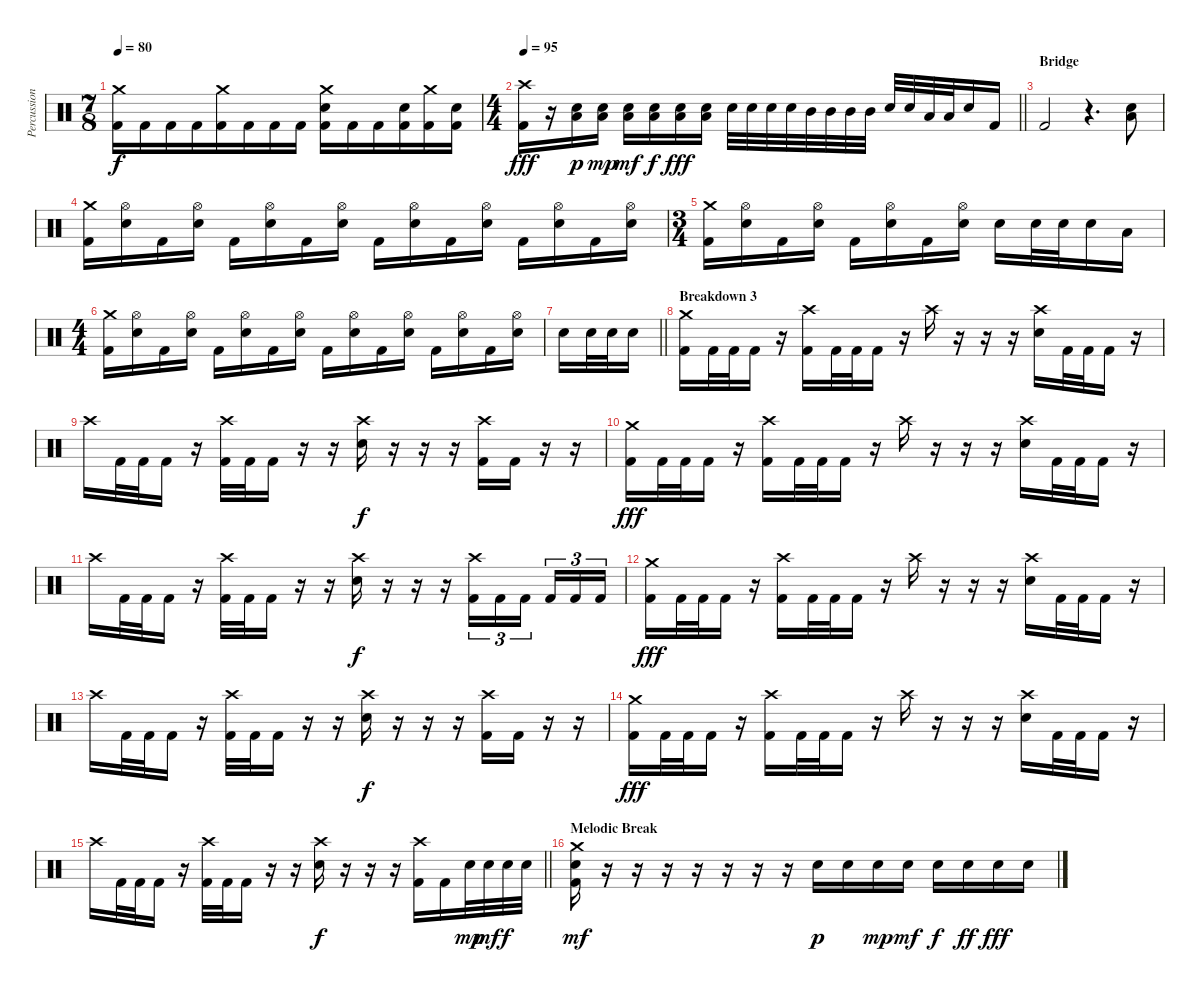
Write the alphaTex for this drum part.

\track ("Percussion" "Percussion") {instrument percussion}
\staff {score}
\articulation defaults
\ts (7 8)
\tempo 80
\clef neutral
\ks c
("Crash medium (hit)" "Kick (hit) 2").16{dy f} "Kick (hit) 2".16 "Kick (hit) 2".16 "Kick (hit) 2".16 ("Crash medium (hit)" "Kick (hit) 2").16 "Kick (hit) 2".16 "Kick (hit) 2".16 "Kick (hit) 2".16 ("Crash medium (hit)" "Electric Snare (hit)" "Kick (hit) 2").16 "Kick (hit) 2".16 "Kick (hit) 2".16 ("Electric Snare (hit)" "Kick (hit) 2").16 ("Crash medium (hit)" "Kick (hit) 2").16 ("Electric Snare (hit)" "Kick (hit) 2").16 |
\ts (4 4)
\tempo 95
\barLineRight lightlight
("Crash high (hit)" "Kick (hit) 2").16{dy fff} r.16 ("Low Floor Tom (hit)" "Electric Snare (hit)").16{dy p} ("Low Floor Tom (hit)" "Electric Snare (hit)").16{dy mp} ("Low Floor Tom (hit)" "Electric Snare (hit)").16{dy mf} ("Low Floor Tom (hit)" "Electric Snare (hit)").16{dy f} ("Low Floor Tom (hit)" "Electric Snare (hit)").16{dy fff} ("Low Floor Tom (hit)" "Electric Snare (hit)").16 "Electric Snare (hit)".32 "Electric Snare (hit)".32 "Electric Snare (hit)".32 "Electric Snare (hit)".32 "Mid Tom (hit)".32 "Mid Tom (hit)".32 "Mid Tom (hit)".32 "Mid Tom (hit)".32 "Electric Snare (hit)".32 "Electric Snare (hit)".32 "Low Floor Tom (hit)".32 "Low Floor Tom (hit)".32 "Electric Snare (hit)".16 "Kick (hit) 2".16 |
\section ("" "Bridge")
"Kick (hit) 2".2 r.4{d} ("Low Floor Tom (hit)" "Electric Snare (hit)").8 |
("Crash medium (hit)" "Kick (hit) 2").16 ("Hi-Hat (open)" "Electric Snare (hit)").16 "Kick (hit) 2".16 ("Hi-Hat (open)" "Electric Snare (hit)").16 "Kick (hit) 2".16 ("Hi-Hat (open)" "Electric Snare (hit)").16 "Kick (hit) 2".16 ("Hi-Hat (open)" "Electric Snare (hit)").16 "Kick (hit) 2".16 ("Hi-Hat (open)" "Electric Snare (hit)").16 "Kick (hit) 2".16 ("Hi-Hat (open)" "Electric Snare (hit)").16 "Kick (hit) 2".16 ("Hi-Hat (open)" "Electric Snare (hit)").16 "Kick (hit) 2".16 ("Hi-Hat (open)" "Electric Snare (hit)").16 |
\ts (3 4)
("Crash medium (hit)" "Kick (hit) 2").16 ("Hi-Hat (open)" "Electric Snare (hit)").16 "Kick (hit) 2".16 ("Hi-Hat (open)" "Electric Snare (hit)").16 "Kick (hit) 2".16 ("Hi-Hat (open)" "Electric Snare (hit)").16 "Kick (hit) 2".16 ("Hi-Hat (open)" "Electric Snare (hit)").16 "Electric Snare (hit)".16 "Electric Snare (hit)".32 "Electric Snare (hit)".32 "Electric Snare (hit)".16 "Low Floor Tom (hit)".16 |
\ts (4 4)
("Crash medium (hit)" "Kick (hit) 2").16 ("Hi-Hat (open)" "Electric Snare (hit)").16 "Kick (hit) 2".16 ("Hi-Hat (open)" "Electric Snare (hit)").16 "Kick (hit) 2".16 ("Hi-Hat (open)" "Electric Snare (hit)").16 "Kick (hit) 2".16 ("Hi-Hat (open)" "Electric Snare (hit)").16 "Kick (hit) 2".16 ("Hi-Hat (open)" "Electric Snare (hit)").16 "Kick (hit) 2".16 ("Hi-Hat (open)" "Electric Snare (hit)").16 "Kick (hit) 2".16 ("Hi-Hat (open)" "Electric Snare (hit)").16 "Kick (hit) 2".16 ("Hi-Hat (open)" "Electric Snare (hit)").16 |
\barLineRight lightlight "Electric Snare (hit)".16 "Electric Snare (hit)".32 "Electric Snare (hit)".32 "Electric Snare (hit)".16
|
\section ("" "Breakdown 3")
("Crash medium (hit)" "Kick (hit) 2").16 "Kick (hit) 2".32 "Kick (hit) 2".32 "Kick (hit) 2".16 r.16 ("Crash high (hit)" "Kick (hit) 2").16 "Kick (hit) 2".32 "Kick (hit) 2".32 "Kick (hit) 2".16 r.16 "Crash high (hit)".16 r.16 r.16 r.16 ("Crash high (hit)" "Electric Snare (hit)").16 "Kick (hit) 2".32 "Kick (hit) 2".32 "Kick (hit) 2".16 r.16 |
"Crash high (hit)".16 "Kick (hit) 2".32 "Kick (hit) 2".32 "Kick (hit) 2".16 r.16 ("Crash high (hit)" "Kick (hit) 2").32 "Kick (hit) 2".32 "Kick (hit) 2".16 r.16 r.16 ("Crash high (hit)" "Electric Snare (hit)").16{dy f} r.16 r.16 r.16 ("Crash high (hit)" "Kick (hit) 2").16 "Kick (hit) 2".16 r.16 r.16 |
("Crash medium (hit)" "Kick (hit) 2").16{dy fff} "Kick (hit) 2".32 "Kick (hit) 2".32 "Kick (hit) 2".16 r.16 ("Crash high (hit)" "Kick (hit) 2").16 "Kick (hit) 2".32 "Kick (hit) 2".32 "Kick (hit) 2".16 r.16 "Crash high (hit)".16 r.16 r.16 r.16 ("Crash high (hit)" "Electric Snare (hit)").16 "Kick (hit) 2".32 "Kick (hit) 2".32 "Kick (hit) 2".16 r.16 |
"Crash high (hit)".16 "Kick (hit) 2".32 "Kick (hit) 2".32 "Kick (hit) 2".16 r.16 ("Crash high (hit)" "Kick (hit) 2").32 "Kick (hit) 2".32 "Kick (hit) 2".16 r.16 r.16 ("Crash high (hit)" "Electric Snare (hit)").16{dy f} r.16 r.16 r.16 ("Crash high (hit)" "Kick (hit) 2").16{tu (3 2)} "Kick (hit) 2".16{tu (3 2)} "Kick (hit) 2".16{tu (3 2) beam splitsecondary} "Kick (hit) 2".16{tu (3 2)} "Kick (hit) 2".16{tu (3 2)} "Kick (hit) 2".16{tu (3 2)} |
("Crash medium (hit)" "Kick (hit) 2").16{dy fff} "Kick (hit) 2".32 "Kick (hit) 2".32 "Kick (hit) 2".16 r.16 ("Crash high (hit)" "Kick (hit) 2").16 "Kick (hit) 2".32 "Kick (hit) 2".32 "Kick (hit) 2".16 r.16 "Crash high (hit)".16 r.16 r.16 r.16 ("Crash high (hit)" "Electric Snare (hit)").16 "Kick (hit) 2".32 "Kick (hit) 2".32 "Kick (hit) 2".16 r.16 |
"Crash high (hit)".16 "Kick (hit) 2".32 "Kick (hit) 2".32 "Kick (hit) 2".16 r.16 ("Crash high (hit)" "Kick (hit) 2").32 "Kick (hit) 2".32 "Kick (hit) 2".16 r.16 r.16 ("Crash high (hit)" "Electric Snare (hit)").16{dy f} r.16 r.16 r.16 ("Crash high (hit)" "Kick (hit) 2").16 "Kick (hit) 2".16 r.16 r.16 |
("Crash medium (hit)" "Kick (hit) 2").16{dy fff} "Kick (hit) 2".32 "Kick (hit) 2".32 "Kick (hit) 2".16 r.16 ("Crash high (hit)" "Kick (hit) 2").16 "Kick (hit) 2".32 "Kick (hit) 2".32 "Kick (hit) 2".16 r.16 "Crash high (hit)".16 r.16 r.16 r.16 ("Crash high (hit)" "Electric Snare (hit)").16 "Kick (hit) 2".32 "Kick (hit) 2".32 "Kick (hit) 2".16 r.16 |
\barLineRight lightlight "Crash high (hit)".16 "Kick (hit) 2".32 "Kick (hit) 2".32 "Kick (hit) 2".16
r.16 ("Crash high (hit)" "Kick (hit) 2").32 "Kick (hit) 2".32 "Kick (hit) 2".16 r.16 r.16 ("Crash high (hit)" "Electric Snare (hit)").16{dy f} r.16 r.16 r.16 ("Crash high (hit)" "Kick (hit) 2").16 "Kick (hit) 2".16 "Electric Snare (hit)".32{dy mp} "Electric Snare (hit)".32{dy mf} "Electric Snare (hit)".32{dy f} "Electric Snare (hit)".32 |
\section ("" "Melodic Break")
("Crash medium (hit)" "Electric Snare (hit)" "Kick (hit) 2").16{dy mf} r.16 r.16 r.16 r.16 r.16 r.16 r.16 "Electric Snare (hit)".16{dy p} "Electric Snare (hit)".16 "Electric Snare (hit)".16{dy mp} "Electric Snare (hit)".16{dy mf} "Electric Snare (hit)".16{dy f} "Electric Snare (hit)".16{dy ff} "Electric Snare (hit)".16{dy fff} "Electric Snare (hit)".16
